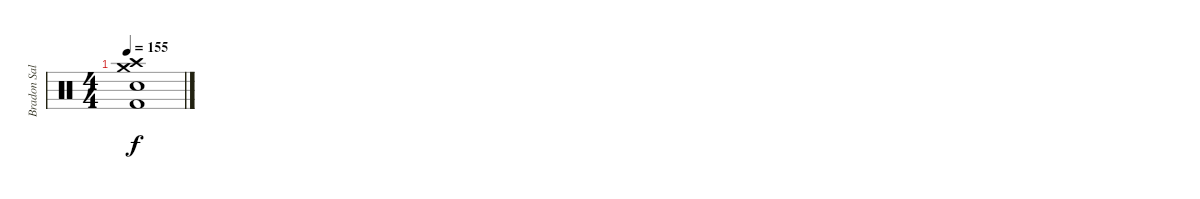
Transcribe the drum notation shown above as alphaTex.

\track ("Bradon Saller" "Bradon Sal") {instrument percussion}
\staff {score}
\articulation defaults
\ts (4 4)
\tempo 155
\clef neutral
\ks c
("Crash high (hit)" "Crash medium (hit)" "Electric Snare (hit)" "Kick (hit) 2").1{dy f}
